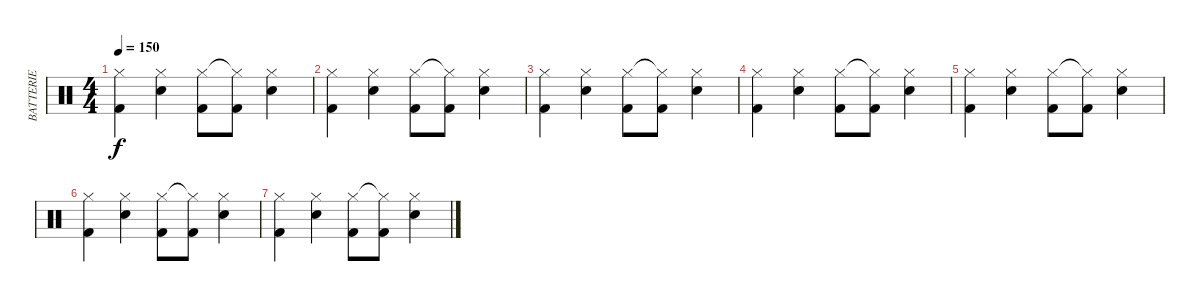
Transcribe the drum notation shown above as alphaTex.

\track ("BATTERIE" "BATTERIE") {instrument percussion}
\staff {score}
\articulation defaults
\ts (4 4)
\tempo 150
\clef neutral
\ks c
("Hi-Hat (closed)" "Kick (hit) 2").4{dy f} ("Hi-Hat (closed)" "Snare (hit) 2").4 ("Hi-Hat (closed)" "Kick (hit) 2").8 ("Hi-Hat (closed)"{t} "Kick (hit) 2").8 ("Hi-Hat (closed)" "Snare (hit) 2").4 |
("Hi-Hat (closed)" "Kick (hit) 2").4 ("Hi-Hat (closed)" "Snare (hit) 2").4 ("Hi-Hat (closed)" "Kick (hit) 2").8 ("Hi-Hat (closed)"{t} "Kick (hit) 2").8 ("Hi-Hat (closed)" "Snare (hit) 2").4 |
("Hi-Hat (closed)" "Kick (hit) 2").4 ("Hi-Hat (closed)" "Snare (hit) 2").4 ("Hi-Hat (closed)" "Kick (hit) 2").8 ("Hi-Hat (closed)"{t} "Kick (hit) 2").8 ("Hi-Hat (closed)" "Snare (hit) 2").4 |
("Hi-Hat (closed)" "Kick (hit) 2").4 ("Hi-Hat (closed)" "Snare (hit) 2").4 ("Hi-Hat (closed)" "Kick (hit) 2").8 ("Hi-Hat (closed)"{t} "Kick (hit) 2").8 ("Hi-Hat (closed)" "Snare (hit) 2").4 |
("Hi-Hat (closed)" "Kick (hit) 2").4 ("Hi-Hat (closed)" "Snare (hit) 2").4 ("Hi-Hat (closed)" "Kick (hit) 2").8 ("Hi-Hat (closed)"{t} "Kick (hit) 2").8 ("Hi-Hat (closed)" "Snare (hit) 2").4 |
("Hi-Hat (closed)" "Kick (hit) 2").4 ("Hi-Hat (closed)" "Snare (hit) 2").4 ("Hi-Hat (closed)" "Kick (hit) 2").8 ("Hi-Hat (closed)"{t} "Kick (hit) 2").8 ("Hi-Hat (closed)" "Snare (hit) 2").4 |
("Hi-Hat (closed)" "Kick (hit) 2").4 ("Hi-Hat (closed)" "Snare (hit) 2").4 ("Hi-Hat (closed)" "Kick (hit) 2").8 ("Hi-Hat (closed)"{t} "Kick (hit) 2").8 ("Hi-Hat (closed)" "Snare (hit) 2").4
